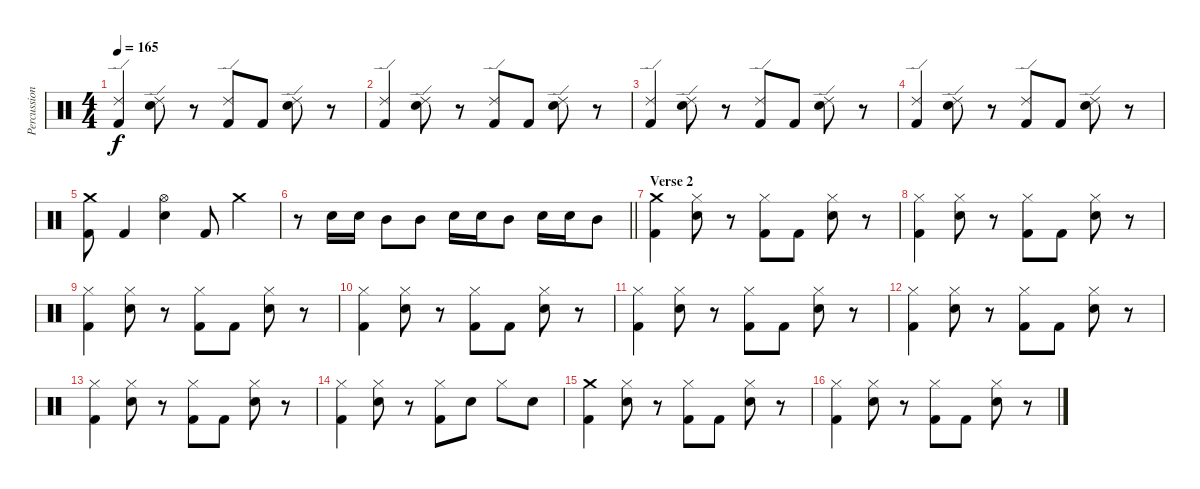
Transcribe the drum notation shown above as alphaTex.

\track ("Percussion" "Percussion") {instrument percussion}
\staff {score}
\articulation defaults
\ts (4 4)
\tempo 165
\clef neutral
\ks c
("Ride (edge) 2" "Kick (hit) 2").4{dy f} ("Ride (edge) 2" "Electric Snare (hit)").8 r.8 ("Ride (edge) 2" "Kick (hit) 2").8 "Kick (hit) 2".8 ("Ride (edge) 2" "Electric Snare (hit)").8 r.8 |
("Ride (edge) 2" "Kick (hit) 2").4 ("Ride (edge) 2" "Electric Snare (hit)").8 r.8 ("Ride (edge) 2" "Kick (hit) 2").8 "Kick (hit) 2".8 ("Ride (edge) 2" "Electric Snare (hit)").8 r.8 |
("Ride (edge) 2" "Kick (hit) 2").4 ("Ride (edge) 2" "Electric Snare (hit)").8 r.8 ("Ride (edge) 2" "Kick (hit) 2").8 "Kick (hit) 2".8 ("Ride (edge) 2" "Electric Snare (hit)").8 r.8 |
("Ride (edge) 2" "Kick (hit) 2").4 ("Ride (edge) 2" "Electric Snare (hit)").8 r.8 ("Ride (edge) 2" "Kick (hit) 2").8 "Kick (hit) 2".8 ("Ride (edge) 2" "Electric Snare (hit)").8 r.8 |
("Crash medium (hit)" "Kick (hit) 2").8 "Kick (hit) 2".4 ("Hi-Hat (open)" "Electric Snare (hit)").4 "Kick (hit) 2".8 "Crash medium (hit)".4 |
\barLineRight lightlight
r.8 "Electric Snare (hit)".16 "Electric Snare (hit)".16 "Mid Tom (hit)".8 "Mid Tom (hit)".8 "Electric Snare (hit)".16 "Electric Snare (hit)".16 "Mid Tom (hit)".8 "Electric Snare (hit)".16 "Electric Snare (hit)".16 "Mid Tom (hit)".8 |
\section ("" "Verse 2")
("Crash medium (hit)" "Kick (hit) 2").4 ("Hi-Hat (closed)" "Electric Snare (hit)").8 r.8 ("Hi-Hat (closed)" "Kick (hit) 2").8 "Kick (hit) 2".8 ("Hi-Hat (closed)" "Electric Snare (hit)").8 r.8 |
("Hi-Hat (closed)" "Kick (hit) 2").4 ("Hi-Hat (closed)" "Electric Snare (hit)").8 r.8 ("Hi-Hat (closed)" "Kick (hit) 2").8 "Kick (hit) 2".8 ("Hi-Hat (closed)" "Electric Snare (hit)").8 r.8 |
("Hi-Hat (closed)" "Kick (hit) 2").4 ("Hi-Hat (closed)" "Electric Snare (hit)").8 r.8 ("Hi-Hat (closed)" "Kick (hit) 2").8 "Kick (hit) 2".8 ("Hi-Hat (closed)" "Electric Snare (hit)").8 r.8 |
("Hi-Hat (closed)" "Kick (hit) 2").4 ("Hi-Hat (closed)" "Electric Snare (hit)").8 r.8 ("Hi-Hat (closed)" "Kick (hit) 2").8 "Kick (hit) 2".8 ("Hi-Hat (closed)" "Electric Snare (hit)").8 r.8 |
("Hi-Hat (closed)" "Kick (hit) 2").4 ("Hi-Hat (closed)" "Electric Snare (hit)").8 r.8 ("Hi-Hat (closed)" "Kick (hit) 2").8 "Kick (hit) 2".8 ("Hi-Hat (closed)" "Electric Snare (hit)").8 r.8 |
("Hi-Hat (closed)" "Kick (hit) 2").4 ("Hi-Hat (closed)" "Electric Snare (hit)").8 r.8 ("Hi-Hat (closed)" "Kick (hit) 2").8 "Kick (hit) 2".8 ("Hi-Hat (closed)" "Electric Snare (hit)").8 r.8 |
("Hi-Hat (closed)" "Kick (hit) 2").4 ("Hi-Hat (closed)" "Electric Snare (hit)").8 r.8 ("Hi-Hat (closed)" "Kick (hit) 2").8 "Kick (hit) 2".8 ("Hi-Hat (closed)" "Electric Snare (hit)").8 r.8 |
("Hi-Hat (closed)" "Kick (hit) 2").4 ("Hi-Hat (closed)" "Electric Snare (hit)").8 r.8 ("Hi-Hat (closed)" "Kick (hit) 2").8 "Electric Snare (hit)".8 "Hi-Hat (closed)".8 "Electric Snare (hit)".8 |
("Crash medium (hit)" "Kick (hit) 2").4 ("Hi-Hat (closed)" "Electric Snare (hit)").8 r.8 ("Hi-Hat (closed)" "Kick (hit) 2").8 "Kick (hit) 2".8 ("Hi-Hat (closed)" "Electric Snare (hit)").8 r.8 |
("Hi-Hat (closed)" "Kick (hit) 2").4 ("Hi-Hat (closed)" "Electric Snare (hit)").8 r.8 ("Hi-Hat (closed)" "Kick (hit) 2").8 "Kick (hit) 2".8 ("Hi-Hat (closed)" "Electric Snare (hit)").8 r.8
